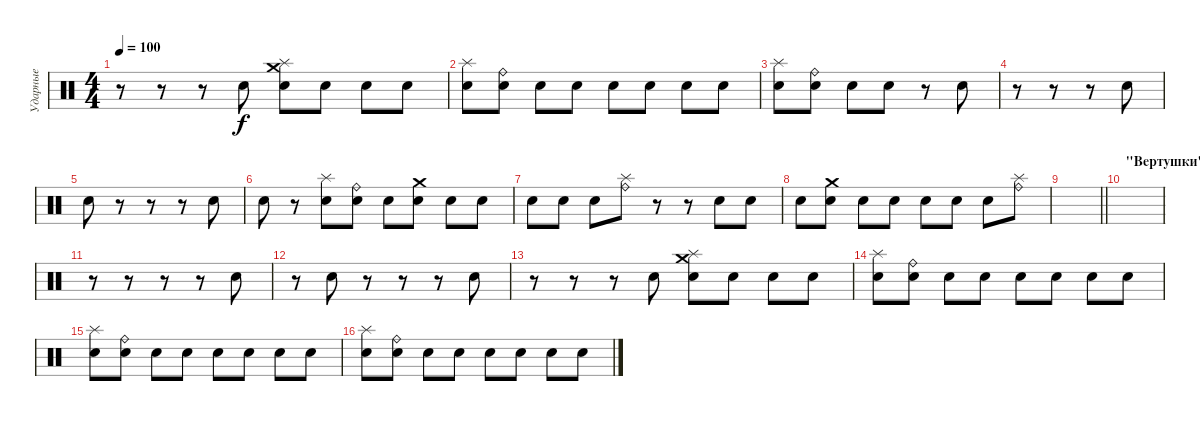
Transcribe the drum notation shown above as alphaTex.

\track ("Ударные" "Ударные") {instrument percussion}
\staff {score}
\articulation defaults
\ts (4 4)
\tempo 100
\clef neutral
\ks c
r.8{dy f} r.8 r.8 "Electric Snare (hit)".8 ("Crash medium (hit)" "Splash (hit)" "Electric Snare (hit)").8 "Electric Snare (hit)".8 "Electric Snare (hit)".8 "Electric Snare (hit)".8 |
("Splash (hit)" "Electric Snare (hit)").8 ("Ride (bell)" "Electric Snare (hit)").8 "Electric Snare (hit)".8 "Electric Snare (hit)".8 "Electric Snare (hit)".8 "Electric Snare (hit)".8 "Electric Snare (hit)".8 "Electric Snare (hit)".8 |
("Splash (hit)" "Electric Snare (hit)").8 ("Ride (bell)" "Electric Snare (hit)").8 "Electric Snare (hit)".8 "Electric Snare (hit)".8 r.8 "Electric Snare (hit)".8 |
r.8 r.8 r.8 "Electric Snare (hit)".8 |
"Electric Snare (hit)".8 r.8 r.8 r.8 "Electric Snare (hit)".8 |
"Electric Snare (hit)".8 r.8 ("Splash (hit)" "Electric Snare (hit)").8 ("Ride (bell)" "Electric Snare (hit)").8 "Electric Snare (hit)".8 ("Crash medium (hit)" "Electric Snare (hit)").8 "Electric Snare (hit)".8 "Electric Snare (hit)".8 |
"Electric Snare (hit)".8 "Electric Snare (hit)".8 "Electric Snare (hit)".8 ("Splash (hit)" "Ride (bell)").8 r.8 r.8 "Electric Snare (hit)".8 "Electric Snare (hit)".8 |
"Electric Snare (hit)".8 ("Crash medium (hit)" "Electric Snare (hit)").8 "Electric Snare (hit)".8 "Electric Snare (hit)".8 "Electric Snare (hit)".8 "Electric Snare (hit)".8 "Electric Snare (hit)".8 ("Splash (hit)" "Ride (bell)").8 |
\barLineRight lightlight
|
\section ("" "\"Вертушки\"")
|
r.8 r.8 r.8 r.8 "Electric Snare (hit)".8 |
r.8 "Electric Snare (hit)".8 r.8 r.8 r.8 "Electric Snare (hit)".8 |
r.8 r.8 r.8 "Electric Snare (hit)".8 ("Crash medium (hit)" "Splash (hit)" "Electric Snare (hit)").8 "Electric Snare (hit)".8 "Electric Snare (hit)".8 "Electric Snare (hit)".8 |
("Splash (hit)" "Electric Snare (hit)").8 ("Ride (bell)" "Electric Snare (hit)").8 "Electric Snare (hit)".8 "Electric Snare (hit)".8 "Electric Snare (hit)".8 "Electric Snare (hit)".8 "Electric Snare (hit)".8 "Electric Snare (hit)".8 |
("Splash (hit)" "Electric Snare (hit)").8 ("Ride (bell)" "Electric Snare (hit)").8 "Electric Snare (hit)".8 "Electric Snare (hit)".8 "Electric Snare (hit)".8 "Electric Snare (hit)".8 "Electric Snare (hit)".8 "Electric Snare (hit)".8 |
("Splash (hit)" "Electric Snare (hit)").8 ("Ride (bell)" "Electric Snare (hit)").8 "Electric Snare (hit)".8 "Electric Snare (hit)".8 "Electric Snare (hit)".8 "Electric Snare (hit)".8 "Electric Snare (hit)".8 "Electric Snare (hit)".8
